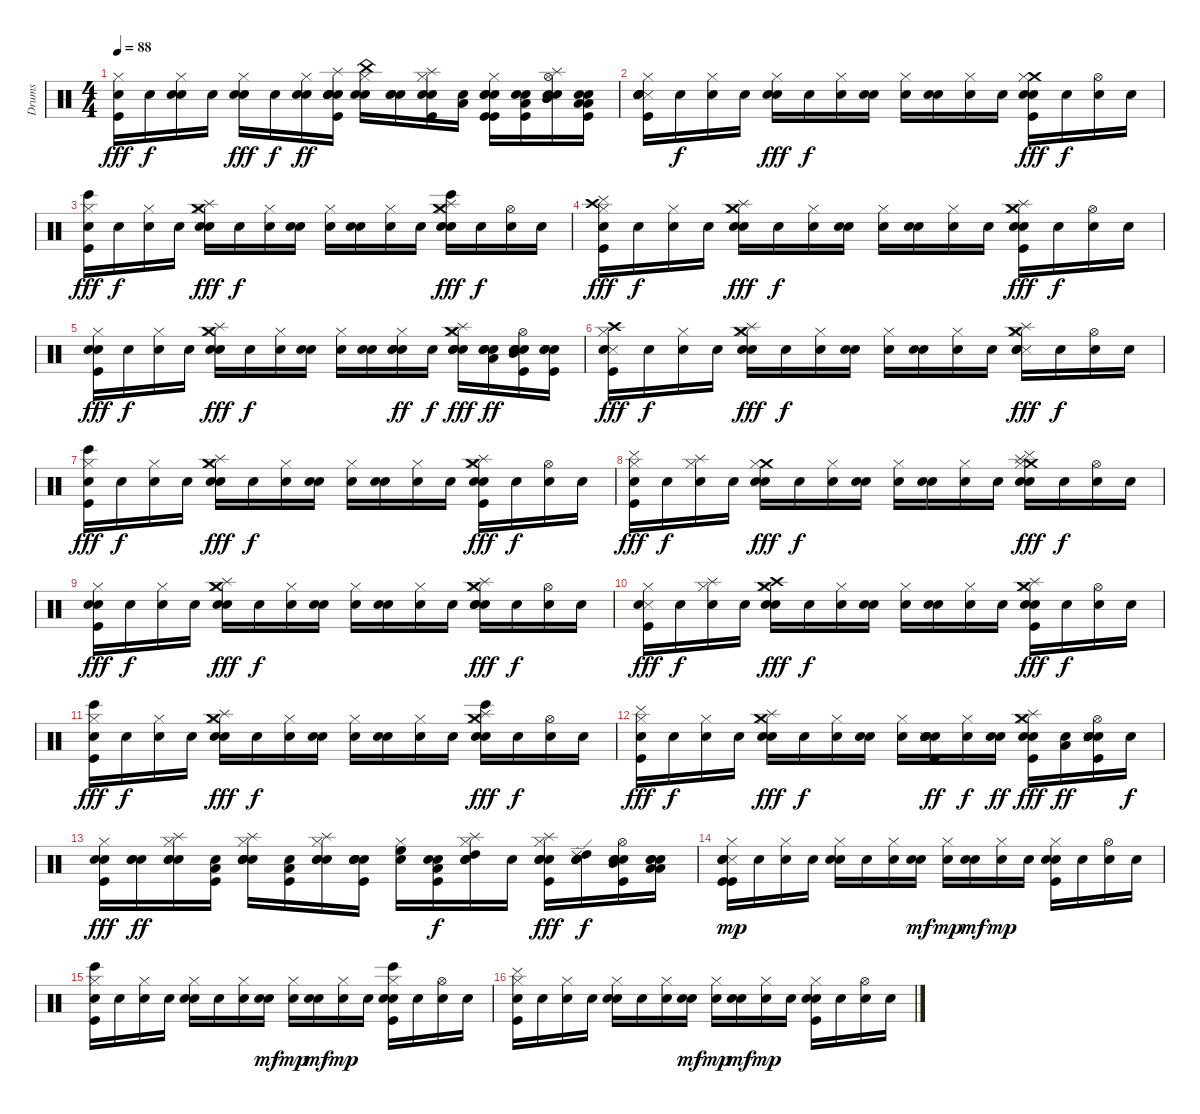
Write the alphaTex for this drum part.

\track ("Drums" "Drums") {instrument percussion}
\staff {score}
\articulation defaults
\ts (4 4)
\tempo 88
\clef neutral
\ks c
("Snare (hit) 2" "Hi-Hat (closed)" "Kick (hit)").16{dy fff} "Snare (hit) 2".16{dy f} ("Snare (hit) 2" "Snare (hit) 2" "Hi-Hat (closed)").16 "Snare (hit) 2".16 ("Snare (hit) 2" "Hand Clap (hit)" "Hi-Hat (closed)").16{dy fff} "Snare (hit) 2".16{dy f} ("Snare (hit) 2" "Hi-Hat (closed)" "Snare (hit) 2").16{dy ff} ("Snare (hit) 2" "Hand Clap (hit)" "Kick (hit)" "Snare (hit) 2" "Electric Snare (hit)" "Splash (hit)").16 ("Snare (hit) 2" "Snare (hit) 2" "China (hit)" "Hi-Hat (closed)").16 ("Snare (hit) 2" "Hand Clap (hit)" "Snare (hit) 2").16 ("Snare (hit) 2" "Hi-Hat (closed)" "Kick (hit)" "Snare (hit) 2" "Splash (hit)").16 ("Snare (hit) 2" "Low Tom (hit)").16 ("Snare (hit) 2" "Snare (hit) 2" "Electric Snare (hit)" "Hi-Hat (closed)" "Kick (hit)" "Kick (hit)").16 ("Snare (hit) 2" "Kick (hit)" "Snare (hit) 2" "Low Tom (hit)").16 ("Snare (hit) 2" "Hi-Hat (open)" "Snare (hit) 2" "Mid Tom (hit)" "Splash (hit)" "Mid Tom (hit)").16 ("Snare (hit) 2" "Kick (hit)" "Snare (hit) 2" "Low Tom (hit)" "Low Tom (hit)").16 |
("Metronome (hit)" "Snare (hit) 2" "Hi-Hat (closed)" "Kick (hit)" "Snare (hit) 2" "Electric Snare (hit)").16{volume 14} "Snare (hit) 2".16{dy f} ("Snare (hit) 2" "Hi-Hat (closed)").16 "Snare (hit) 2".16 ("Snare (hit) 2" "Hand Clap (hit)" "Hi-Hat (closed)").16{dy fff} "Snare (hit) 2".16{dy f} ("Snare (hit) 2" "Hi-Hat (closed)").16 ("Snare (hit) 2" "Hand Clap (hit)").16 ("Snare (hit) 2" "Hi-Hat (closed)").16 ("Snare (hit) 2" "Hand Clap (hit)").16 ("Snare (hit) 2" "Hi-Hat (closed)").16 "Snare (hit) 2".16 ("Snare (hit) 2" "Electric Snare (hit)" "Crash medium (hit)" "Hi-Hat (closed)" "Kick (hit)").16{dy fff} "Snare (hit) 2".16{dy f} ("Snare (hit) 2" "Hi-Hat (open)").16 "Snare (hit) 2".16 |
("Bongo High (hit)" "Snare (hit) 2" "Hi-Hat (closed)" "Kick (hit)").16{dy fff} "Snare (hit) 2".16{dy f} ("Snare (hit) 2" "Hi-Hat (closed)").16 "Snare (hit) 2".16 ("Snare (hit) 2" "Hand Clap (hit)" "Crash medium (hit)" "Hi-Hat (closed)" "Splash (hit)").16{dy fff} "Snare (hit) 2".16{dy f} ("Snare (hit) 2" "Hi-Hat (closed)").16 ("Snare (hit) 2" "Hand Clap (hit)").16 ("Snare (hit) 2" "Hi-Hat (closed)").16 ("Snare (hit) 2" "Hand Clap (hit)").16 ("Snare (hit) 2" "Hi-Hat (closed)").16 "Snare (hit) 2".16 ("Bongo High (hit)" "Snare (hit) 2" "Electric Snare (hit)" "Crash medium (hit)" "Hi-Hat (closed)" "Splash (hit)").16{dy fff} "Snare (hit) 2".16{dy f} ("Snare (hit) 2" "Hi-Hat (open)").16 "Snare (hit) 2".16 |
("Cymbal (hit)" "Snare (hit) 2" "Hi-Hat (closed)" "Kick (hit)" "Crash high (hit)").16{dy fff} "Snare (hit) 2".16{dy f} ("Snare (hit) 2" "Hi-Hat (closed)").16 "Snare (hit) 2".16 ("Snare (hit) 2" "Hand Clap (hit)" "Crash medium (hit)" "Hi-Hat (closed)" "Splash (hit)").16{dy fff} "Snare (hit) 2".16{dy f} ("Snare (hit) 2" "Hi-Hat (closed)").16 ("Snare (hit) 2" "Hand Clap (hit)").16 ("Snare (hit) 2" "Hi-Hat (closed)").16 ("Snare (hit) 2" "Hand Clap (hit)").16 ("Snare (hit) 2" "Hi-Hat (closed)").16 "Snare (hit) 2".16 ("Snare (hit) 2" "Electric Snare (hit)" "Crash medium (hit)" "Hi-Hat (closed)" "Splash (hit)" "Kick (hit)").16{dy fff} "Snare (hit) 2".16{dy f} ("Snare (hit) 2" "Hi-Hat (open)").16 "Snare (hit) 2".16 |
("Snare (hit) 2" "Snare (hit) 2" "Hi-Hat (closed)" "Kick (hit)").16{dy fff} "Snare (hit) 2".16{dy f} ("Snare (hit) 2" "Hi-Hat (closed)").16 "Snare (hit) 2".16 ("Snare (hit) 2" "Hand Clap (hit)" "Crash medium (hit)" "Hi-Hat (closed)" "Splash (hit)").16{dy fff} "Snare (hit) 2".16{dy f} ("Snare (hit) 2" "Hi-Hat (closed)").16 ("Snare (hit) 2" "Hand Clap (hit)").16 ("Snare (hit) 2" "Hi-Hat (closed)").16 ("Snare (hit) 2" "Hand Clap (hit)").16 ("Snare (hit) 2" "Hi-Hat (closed)" "Snare (hit) 2" "Electric Snare (hit)").16{dy ff} "Snare (hit) 2".16{dy f} ("Snare (hit) 2" "Snare (hit) 2" "Electric Snare (hit)" "Crash medium (hit)" "Hi-Hat (closed)" "Splash (hit)").16{dy fff} ("Snare (hit) 2" "Snare (hit) 2" "Electric Snare (hit)" "Low Tom (hit)").16{dy ff} ("Snare (hit) 2" "Hi-Hat (open)" "Kick (hit)" "Snare (hit) 2" "Electric Snare (hit)" "Mid Tom (hit)").16 ("Snare (hit) 2" "Kick (hit)" "Snare (hit) 2" "Electric Snare (hit)").16 |
("Metronome (hit)" "Snare (hit) 2" "Hi-Hat (closed)" "Kick (hit)" "Crash high (hit)").16{dy fff} "Snare (hit) 2".16{dy f} ("Snare (hit) 2" "Hi-Hat (closed)").16 "Snare (hit) 2".16 ("Snare (hit) 2" "Hand Clap (hit)" "Crash medium (hit)" "Hi-Hat (closed)" "Splash (hit)").16{dy fff} "Snare (hit) 2".16{dy f} ("Snare (hit) 2" "Hi-Hat (closed)").16 ("Snare (hit) 2" "Hand Clap (hit)").16 ("Snare (hit) 2" "Hi-Hat (closed)").16 ("Snare (hit) 2" "Hand Clap (hit)").16 ("Snare (hit) 2" "Hi-Hat (closed)").16 "Snare (hit) 2".16 ("Metronome (hit)" "Snare (hit) 2" "Electric Snare (hit)" "Crash medium (hit)" "Hi-Hat (closed)" "Splash (hit)").16{dy fff} "Snare (hit) 2".16{dy f} ("Snare (hit) 2" "Hi-Hat (open)").16 "Snare (hit) 2".16 |
("Bongo High (hit)" "Snare (hit) 2" "Hi-Hat (closed)" "Kick (hit)").16{dy fff} "Snare (hit) 2".16{dy f} ("Snare (hit) 2" "Hi-Hat (closed)").16 "Snare (hit) 2".16 ("Snare (hit) 2" "Hand Clap (hit)" "Crash medium (hit)" "Hi-Hat (closed)" "Splash (hit)").16{dy fff} "Snare (hit) 2".16{dy f} ("Snare (hit) 2" "Hi-Hat (closed)").16 ("Snare (hit) 2" "Hand Clap (hit)").16 ("Snare (hit) 2" "Hi-Hat (closed)").16 ("Snare (hit) 2" "Hand Clap (hit)").16 ("Snare (hit) 2" "Hi-Hat (closed)").16 "Snare (hit) 2".16 ("Snare (hit) 2" "Electric Snare (hit)" "Crash medium (hit)" "Hi-Hat (closed)" "Splash (hit)" "Kick (hit)").16{dy fff} "Snare (hit) 2".16{dy f} ("Snare (hit) 2" "Hi-Hat (open)").16 "Snare (hit) 2".16 |
("Cymbal (hit)" "Snare (hit) 2" "Hi-Hat (closed)" "Kick (hit)").16{dy fff} "Snare (hit) 2".16{dy f} ("Snare (hit) 2" "Hi-Hat (closed)" "Splash (hit)").16 "Snare (hit) 2".16 ("Snare (hit) 2" "Hand Clap (hit)" "Crash medium (hit)" "Hi-Hat (closed)").16{dy fff} "Snare (hit) 2".16{dy f} ("Snare (hit) 2" "Hi-Hat (closed)").16 ("Snare (hit) 2" "Hand Clap (hit)").16 ("Snare (hit) 2" "Hi-Hat (closed)").16 ("Snare (hit) 2" "Hand Clap (hit)").16 ("Snare (hit) 2" "Hi-Hat (closed)").16 "Snare (hit) 2".16 ("Cymbal (hit)" "Snare (hit) 2" "Electric Snare (hit)" "Crash medium (hit)" "Hi-Hat (closed)" "Splash (hit)").16{dy fff} "Snare (hit) 2".16{dy f} ("Snare (hit) 2" "Hi-Hat (open)").16 "Snare (hit) 2".16 |
("Snare (hit) 2" "Snare (hit) 2" "Hi-Hat (closed)" "Kick (hit)").16{dy fff} "Snare (hit) 2".16{dy f} ("Snare (hit) 2" "Hi-Hat (closed)").16 "Snare (hit) 2".16 ("Snare (hit) 2" "Hand Clap (hit)" "Crash medium (hit)" "Hi-Hat (closed)" "Splash (hit)").16{dy fff} "Snare (hit) 2".16{dy f} ("Snare (hit) 2" "Hi-Hat (closed)").16 ("Snare (hit) 2" "Hand Clap (hit)").16 ("Snare (hit) 2" "Hi-Hat (closed)").16 ("Snare (hit) 2" "Hand Clap (hit)").16 ("Snare (hit) 2" "Hi-Hat (closed)").16 "Snare (hit) 2".16 ("Snare (hit) 2" "Snare (hit) 2" "Electric Snare (hit)" "Crash medium (hit)" "Hi-Hat (closed)" "Splash (hit)").16{dy fff} "Snare (hit) 2".16{dy f} ("Snare (hit) 2" "Hi-Hat (open)").16 "Snare (hit) 2".16 |
("Metronome (hit)" "Snare (hit) 2" "Hi-Hat (closed)" "Kick (hit)").16{dy fff} "Snare (hit) 2".16{dy f} ("Snare (hit) 2" "Hi-Hat (closed)" "Splash (hit)").16 "Snare (hit) 2".16 ("Snare (hit) 2" "Hand Clap (hit)" "Crash medium (hit)" "Hi-Hat (closed)" "Crash high (hit)").16{dy fff} "Snare (hit) 2".16{dy f} ("Snare (hit) 2" "Hi-Hat (closed)").16 ("Snare (hit) 2" "Hand Clap (hit)").16 ("Snare (hit) 2" "Hi-Hat (closed)").16 ("Snare (hit) 2" "Hand Clap (hit)").16 ("Snare (hit) 2" "Hi-Hat (closed)").16 "Snare (hit) 2".16 ("Snare (hit) 2" "Electric Snare (hit)" "Crash medium (hit)" "Hi-Hat (closed)" "Splash (hit)" "Kick (hit)").16{dy fff} "Snare (hit) 2".16{dy f} ("Snare (hit) 2" "Hi-Hat (open)").16 "Snare (hit) 2".16 |
("Bongo High (hit)" "Snare (hit) 2" "Hi-Hat (closed)" "Kick (hit)").16{dy fff} "Snare (hit) 2".16{dy f} ("Snare (hit) 2" "Hi-Hat (closed)").16 "Snare (hit) 2".16 ("Snare (hit) 2" "Hand Clap (hit)" "Crash medium (hit)" "Hi-Hat (closed)" "Splash (hit)").16{dy fff} "Snare (hit) 2".16{dy f} ("Snare (hit) 2" "Hi-Hat (closed)").16 ("Snare (hit) 2" "Hand Clap (hit)").16 ("Snare (hit) 2" "Hi-Hat (closed)").16 ("Snare (hit) 2" "Hand Clap (hit)").16 ("Snare (hit) 2" "Hi-Hat (closed)").16 "Snare (hit) 2".16 ("Bongo High (hit)" "Snare (hit) 2" "Electric Snare (hit)" "Crash medium (hit)" "Hi-Hat (closed)" "Splash (hit)").16{dy fff} "Snare (hit) 2".16{dy f} ("Snare (hit) 2" "Hi-Hat (open)").16 "Snare (hit) 2".16 |
("Cymbal (hit)" "Snare (hit) 2" "Hi-Hat (closed)" "Kick (hit)").16{dy fff} "Snare (hit) 2".16{dy f} ("Snare (hit) 2" "Hi-Hat (closed)").16 "Snare (hit) 2".16 ("Snare (hit) 2" "Hand Clap (hit)" "Crash medium (hit)" "Hi-Hat (closed)" "Splash (hit)").16{dy fff} "Snare (hit) 2".16{dy f} ("Snare (hit) 2" "Hi-Hat (closed)").16 ("Snare (hit) 2" "Hand Clap (hit)").16 ("Snare (hit) 2" "Hi-Hat (closed)").16 ("Snare (hit) 2" "Hand Clap (hit)" "Kick (hit)" "Snare (side stick) 3" "Snare (hit) 2" "Electric Snare (hit)").16{dy ff} ("Snare (hit) 2" "Hi-Hat (closed)").16{dy f} ("Snare (hit) 2" "Electric Snare (hit)").16{dy ff} ("Snare (hit) 2" "Electric Snare (hit)" "Crash medium (hit)" "Hi-Hat (closed)" "Splash (hit)" "Kick (hit)").16{dy fff} ("Snare (hit) 2" "Low Tom (hit)").16{dy ff} ("Snare (hit) 2" "Hi-Hat (open)" "Kick (hit)" "Snare (side stick) 3" "Snare (hit) 2" "Electric Snare (hit)").16 "Snare (hit) 2".16{dy f} |
("Snare (hit) 2" "Snare (hit) 2" "Hi-Hat (closed)" "Kick (hit)").16{dy fff} ("Snare (hit) 2" "Snare (hit) 2" "Electric Snare (hit)").16{dy ff} ("Snare (hit) 2" "Hi-Hat (closed)" "Snare (hit) 2" "Electric Snare (hit)" "Splash (hit)").16 ("Snare (hit) 2" "Kick (hit)" "Low Tom (hit)").16 ("Snare (hit) 2" "Hand Clap (hit)" "Hi-Hat (closed)" "Splash (hit)" "Snare (hit) 2" "Electric Snare (hit)").16 ("Snare (hit) 2" "Kick (hit)" "Low Tom (hit)").16 ("Snare (hit) 2" "Hi-Hat (closed)" "Snare (hit) 2" "Electric Snare (hit)" "Splash (hit)").16 ("Snare (hit) 2" "Hand Clap (hit)" "Kick (hit)" "Snare (hit) 2" "Electric Snare (hit)").16 ("Snare (hit) 2" "High Floor Tom (hit)" "Hi-Hat (closed)").16{volume 13} ("Snare (hit) 2" "Hand Clap (hit)" "Kick (hit)" "Low Tom (hit)").16{dy f} ("Snare (hit) 2" "Hi-Hat (closed)" "Snare (hit) 2" "Electric Snare (hit)" "High Tom (hit)" "Splash (hit)").16{volume 13} "Snare (hit) 2".16 ("Snare (hit) 2" "Snare (hit) 2" "Electric Snare (hit)" "Hi-Hat (closed)" "Splash (hit)" "Kick (hit)").16{dy fff volume 13} ("Snare (hit) 2" "Snare (hit) 2" "Electric Snare (hit)" "High Tom (hit)" "Ride (edge) 2").16{dy f} ("Snare (hit) 2" "Hi-Hat (open)" "Kick (hit)" "Snare (hit) 2" "Electric Snare (hit)" "Mid Tom (hit)").16 ("Snare (hit) 2" "Snare (hit) 2" "Electric Snare (hit)" "Low Tom (hit)" "Low Tom (hit)").16{volume 13} |
("Metronome (hit)" "Snare (hit) 2" "Hi-Hat (closed)" "Kick (hit)" "Kick (hit)" "Snare (hit) 2").16{dy mp volume 7} "Snare (hit) 2".16{volume 12} ("Snare (hit) 2" "Hi-Hat (closed)").16 "Snare (hit) 2".16{volume 12} ("Snare (hit) 2" "Hand Clap (hit)" "Hi-Hat (closed)").16{volume 12} "Snare (hit) 2".16 ("Snare (hit) 2" "Hi-Hat (closed)").16 ("Snare (hit) 2" "Hand Clap (hit)").16{dy mf} ("Snare (hit) 2" "Hi-Hat (closed)").16{dy mp} ("Snare (hit) 2" "Hand Clap (hit)").16{dy mf} ("Snare (hit) 2" "Hi-Hat (closed)").16{dy mp} "Snare (hit) 2".16 ("Snare (hit) 2" "Hand Clap (hit)" "Hi-Hat (closed)" "Kick (hit)").16 "Snare (hit) 2".16 ("Snare (hit) 2" "Hi-Hat (open)").16 "Snare (hit) 2".16 |
("Bongo High (hit)" "Snare (hit) 2" "Hi-Hat (closed)" "Kick (hit)").16 "Snare (hit) 2".16 ("Snare (hit) 2" "Hi-Hat (closed)").16 "Snare (hit) 2".16 ("Snare (hit) 2" "Hand Clap (hit)" "Hi-Hat (closed)").16{volume 8} "Snare (hit) 2".16 ("Snare (hit) 2" "Hi-Hat (closed)").16 ("Snare (hit) 2" "Hand Clap (hit)").16{dy mf volume 8} ("Snare (hit) 2" "Hi-Hat (closed)").16{dy mp} ("Snare (hit) 2" "Hand Clap (hit)").16{dy mf} ("Snare (hit) 2" "Hi-Hat (closed)").16{dy mp volume 8} "Snare (hit) 2".16 ("Bongo High (hit)" "Snare (hit) 2" "Hand Clap (hit)" "Hi-Hat (closed)" "Kick (hit)").16 "Snare (hit) 2".16{volume 8} ("Snare (hit) 2" "Hi-Hat (open)").16 "Snare (hit) 2".16 |
("Cymbal (hit)" "Snare (hit) 2" "Hi-Hat (closed)" "Kick (hit)").16{volume 8} "Snare (hit) 2".16 ("Snare (hit) 2" "Hi-Hat (closed)").16 "Snare (hit) 2".16 ("Snare (hit) 2" "Hand Clap (hit)" "Hi-Hat (closed)").16{volume 7} "Snare (hit) 2".16 ("Snare (hit) 2" "Hi-Hat (closed)").16 ("Snare (hit) 2" "Hand Clap (hit)").16{dy mf volume 7} ("Snare (hit) 2" "Hi-Hat (closed)").16{dy mp} ("Snare (hit) 2" "Hand Clap (hit)").16{dy mf} ("Snare (hit) 2" "Hi-Hat (closed)").16{dy mp volume 7} "Snare (hit) 2".16 ("Snare (hit) 2" "Hand Clap (hit)" "Hi-Hat (closed)" "Kick (hit)").16 "Snare (hit) 2".16{volume 7} ("Snare (hit) 2" "Hi-Hat (open)").16 "Snare (hit) 2".16
